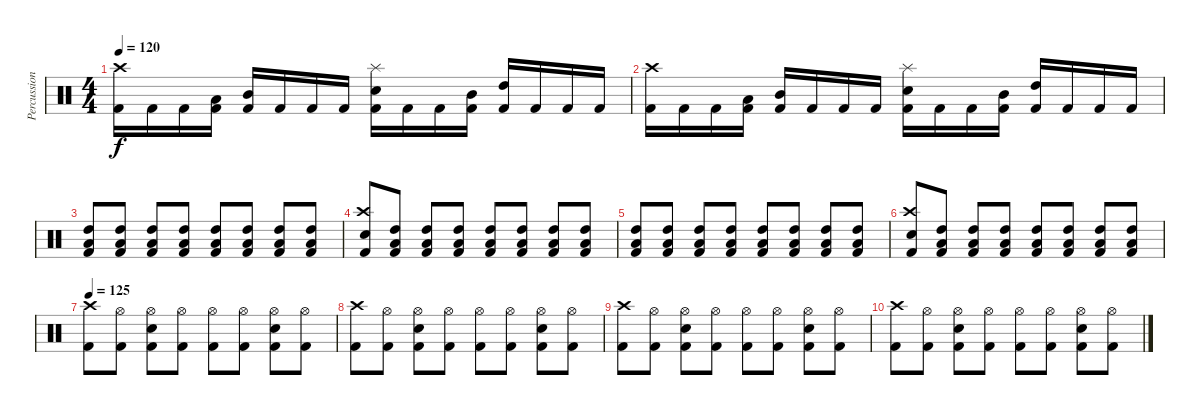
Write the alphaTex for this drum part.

\track ("Percussion" "Percussion") {instrument percussion}
\staff {score}
\articulation defaults
\ts (4 4)
\tempo 120
\clef neutral
\ks c
("Kick (hit) 2" "Crash high (hit)").16{dy f} "Kick (hit) 2".16 "Kick (hit) 2".16 ("Kick (hit) 2" "Low Tom (hit)").16 ("Kick (hit) 2" "Mid Tom (hit)").16 "Kick (hit) 2".16 "Kick (hit) 2".16 "Kick (hit) 2".16 ("Kick (hit) 2" "Snare (hit) 2" "Splash (hit)").16 "Kick (hit) 2".16 "Kick (hit) 2".16 ("Kick (hit) 2" "Mid Tom (hit)").16 ("Kick (hit) 2" "High Tom (hit)").16 "Kick (hit) 2".16 "Kick (hit) 2".16 "Kick (hit) 2".16 |
("Kick (hit) 2" "Crash high (hit)").16 "Kick (hit) 2".16 "Kick (hit) 2".16 ("Kick (hit) 2" "Low Tom (hit)").16 ("Kick (hit) 2" "Mid Tom (hit)").16 "Kick (hit) 2".16 "Kick (hit) 2".16 "Kick (hit) 2".16 ("Kick (hit) 2" "Snare (hit) 2" "Splash (hit)").16 "Kick (hit) 2".16 "Kick (hit) 2".16 ("Kick (hit) 2" "Mid Tom (hit)").16 ("Kick (hit) 2" "High Tom (hit)").16 "Kick (hit) 2".16 "Kick (hit) 2".16 "Kick (hit) 2".16 |
("Kick (hit) 2" "High Tom (hit)" "Low Floor Tom (hit)").8 ("Kick (hit) 2" "High Tom (hit)" "Low Floor Tom (hit)").8 ("Kick (hit) 2" "High Tom (hit)" "Low Floor Tom (hit)").8 ("Kick (hit) 2" "High Tom (hit)" "Low Floor Tom (hit)").8 ("Kick (hit) 2" "High Tom (hit)" "Low Floor Tom (hit)").8 ("Kick (hit) 2" "High Tom (hit)" "Low Floor Tom (hit)").8 ("Kick (hit) 2" "High Tom (hit)" "Low Floor Tom (hit)").8 ("Kick (hit) 2" "High Tom (hit)" "Low Floor Tom (hit)").8 |
("Kick (hit) 2" "Snare (hit) 2" "Crash high (hit)").8 ("Kick (hit) 2" "High Tom (hit)" "Low Floor Tom (hit)").8 ("Kick (hit) 2" "High Tom (hit)" "Low Floor Tom (hit)").8 ("Kick (hit) 2" "High Tom (hit)" "Low Floor Tom (hit)").8 ("Kick (hit) 2" "High Tom (hit)" "Low Floor Tom (hit)").8 ("Kick (hit) 2" "High Tom (hit)" "Low Floor Tom (hit)").8 ("Kick (hit) 2" "High Tom (hit)" "Low Floor Tom (hit)").8 ("Kick (hit) 2" "High Tom (hit)" "Low Floor Tom (hit)").8 |
("Kick (hit) 2" "High Tom (hit)" "Low Floor Tom (hit)").8 ("Kick (hit) 2" "High Tom (hit)" "Low Floor Tom (hit)").8 ("Kick (hit) 2" "High Tom (hit)" "Low Floor Tom (hit)").8 ("Kick (hit) 2" "High Tom (hit)" "Low Floor Tom (hit)").8 ("Kick (hit) 2" "High Tom (hit)" "Low Floor Tom (hit)").8 ("Kick (hit) 2" "High Tom (hit)" "Low Floor Tom (hit)").8 ("Kick (hit) 2" "High Tom (hit)" "Low Floor Tom (hit)").8 ("Kick (hit) 2" "High Tom (hit)" "Low Floor Tom (hit)").8 |
("Kick (hit) 2" "Snare (hit) 2" "Crash high (hit)").8 ("Kick (hit) 2" "High Tom (hit)" "Low Floor Tom (hit)").8 ("Kick (hit) 2" "High Tom (hit)" "Low Floor Tom (hit)").8 ("Kick (hit) 2" "High Tom (hit)" "Low Floor Tom (hit)").8 ("Kick (hit) 2" "High Tom (hit)" "Low Floor Tom (hit)").8 ("Kick (hit) 2" "High Tom (hit)" "Low Floor Tom (hit)").8 ("Kick (hit) 2" "High Tom (hit)" "Low Floor Tom (hit)").8 ("Kick (hit) 2" "High Tom (hit)" "Low Floor Tom (hit)").8 |
\tempo 125
("Kick (hit) 2" "Crash high (hit)").8 ("Kick (hit) 2" "Hi-Hat (open)").8 ("Kick (hit) 2" "Snare (hit) 2" "Hi-Hat (open)").8 ("Kick (hit) 2" "Hi-Hat (open)").8 ("Kick (hit) 2" "Hi-Hat (open)").8 ("Kick (hit) 2" "Hi-Hat (open)").8 ("Kick (hit) 2" "Snare (hit) 2" "Hi-Hat (open)").8 ("Kick (hit) 2" "Hi-Hat (open)").8 |
("Kick (hit) 2" "Crash high (hit)").8 ("Kick (hit) 2" "Hi-Hat (open)").8 ("Kick (hit) 2" "Snare (hit) 2" "Hi-Hat (open)").8 ("Kick (hit) 2" "Hi-Hat (open)").8 ("Kick (hit) 2" "Hi-Hat (open)").8 ("Kick (hit) 2" "Hi-Hat (open)").8 ("Kick (hit) 2" "Snare (hit) 2" "Hi-Hat (open)").8 ("Kick (hit) 2" "Hi-Hat (open)").8 |
("Kick (hit) 2" "Crash high (hit)").8 ("Kick (hit) 2" "Hi-Hat (open)").8 ("Kick (hit) 2" "Snare (hit) 2" "Hi-Hat (open)").8 ("Kick (hit) 2" "Hi-Hat (open)").8 ("Kick (hit) 2" "Hi-Hat (open)").8 ("Kick (hit) 2" "Hi-Hat (open)").8 ("Kick (hit) 2" "Snare (hit) 2" "Hi-Hat (open)").8 ("Kick (hit) 2" "Hi-Hat (open)").8 |
("Kick (hit) 2" "Crash high (hit)").8 ("Kick (hit) 2" "Hi-Hat (open)").8 ("Kick (hit) 2" "Snare (hit) 2" "Hi-Hat (open)").8 ("Kick (hit) 2" "Hi-Hat (open)").8 ("Kick (hit) 2" "Hi-Hat (open)").8 ("Kick (hit) 2" "Hi-Hat (open)").8 ("Kick (hit) 2" "Snare (hit) 2" "Hi-Hat (open)").8 ("Kick (hit) 2" "Hi-Hat (open)").8
